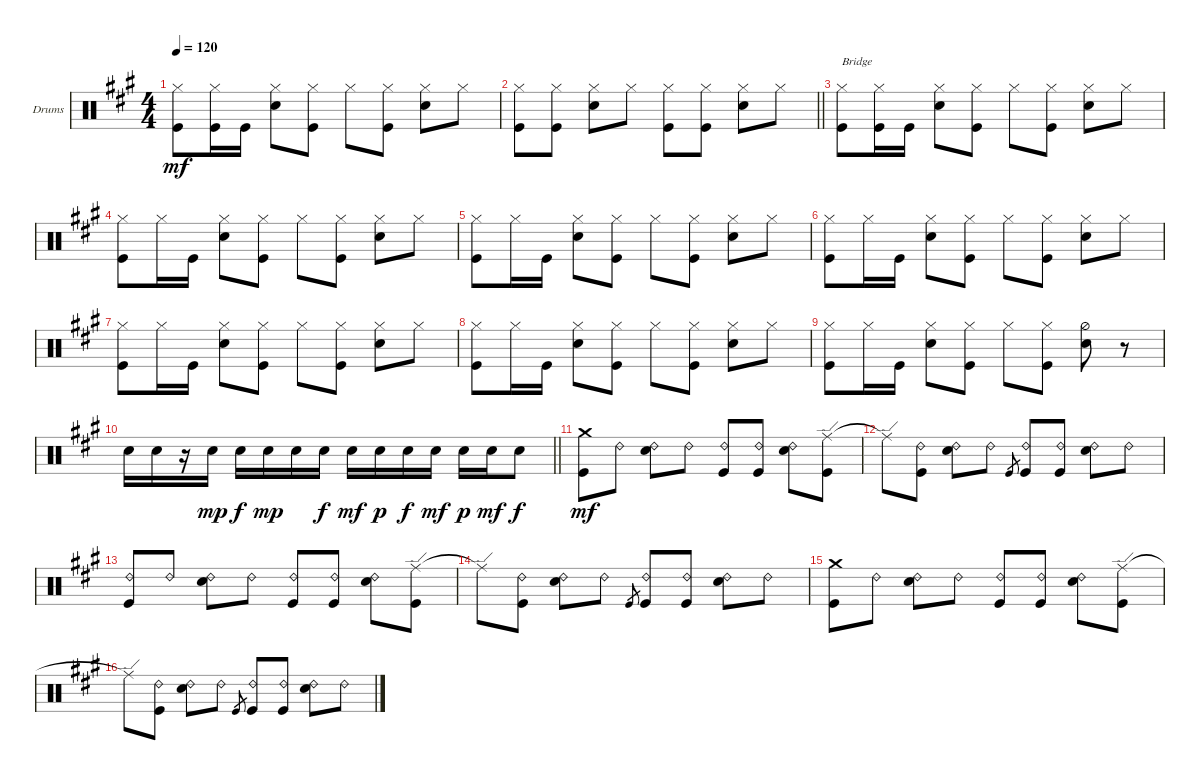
\bracketExtendMode groupsimilarinstruments
\firstSystemTrackNameOrientation horizontal
\otherSystemsTrackNameOrientation horizontal
\track ("Drumkit" "Drums") {instrument percussion}
\staff {score}
\articulation defaults
\ts (4 4)
\tempo 120
\clef neutral
\ks a
("Kick (hit)" "Hi-Hat (closed)").8{dy mf} ("Kick (hit)" "Hi-Hat (closed)").16 "Kick (hit)".16 ("Snare (hit) 2" "Hi-Hat (closed)").8 ("Kick (hit)" "Hi-Hat (closed)").8 "Hi-Hat (closed)".8 ("Hi-Hat (closed)" "Kick (hit)").8 ("Hi-Hat (closed)" "Snare (hit) 2").8 "Hi-Hat (closed)".8 |
\barLineRight lightlight
("Hi-Hat (closed)" "Kick (hit)").8 ("Hi-Hat (closed)" "Kick (hit)").8 ("Hi-Hat (closed)" "Snare (hit) 2").8 "Hi-Hat (closed)".8 ("Hi-Hat (closed)" "Kick (hit)").8 ("Hi-Hat (closed)" "Kick (hit)").8 ("Hi-Hat (closed)" "Snare (hit) 2").8 "Hi-Hat (closed)".8 |
("Kick (hit)" "Hi-Hat (closed)").8{txt "Bridge"} ("Hi-Hat (closed)" "Kick (hit)").16 "Kick (hit)".16 ("Snare (hit) 2" "Hi-Hat (closed)").8 ("Kick (hit)" "Hi-Hat (closed)").8 "Hi-Hat (closed)".8 ("Hi-Hat (closed)" "Kick (hit)").8 ("Hi-Hat (closed)" "Snare (hit) 2").8 "Hi-Hat (closed)".8 |
("Kick (hit)" "Hi-Hat (closed)").8 "Hi-Hat (closed)".16 "Kick (hit)".16 ("Snare (hit) 2" "Hi-Hat (closed)").8 ("Kick (hit)" "Hi-Hat (closed)").8 "Hi-Hat (closed)".8 ("Hi-Hat (closed)" "Kick (hit)").8 ("Hi-Hat (closed)" "Snare (hit) 2").8 "Hi-Hat (closed)".8 |
("Kick (hit)" "Hi-Hat (closed)").8 "Hi-Hat (closed)".16 "Kick (hit)".16 ("Snare (hit) 2" "Hi-Hat (closed)").8 ("Kick (hit)" "Hi-Hat (closed)").8 "Hi-Hat (closed)".8 ("Hi-Hat (closed)" "Kick (hit)").8 ("Hi-Hat (closed)" "Snare (hit) 2").8 "Hi-Hat (closed)".8 |
("Kick (hit)" "Hi-Hat (closed)").8 "Hi-Hat (closed)".16 "Kick (hit)".16 ("Snare (hit) 2" "Hi-Hat (closed)").8 ("Kick (hit)" "Hi-Hat (closed)").8 "Hi-Hat (closed)".8 ("Hi-Hat (closed)" "Kick (hit)").8 ("Hi-Hat (closed)" "Snare (hit) 2").8 "Hi-Hat (closed)".8 |
("Kick (hit)" "Hi-Hat (closed)").8 "Hi-Hat (closed)".16 "Kick (hit)".16 ("Snare (hit) 2" "Hi-Hat (closed)").8 ("Kick (hit)" "Hi-Hat (closed)").8 "Hi-Hat (closed)".8 ("Hi-Hat (closed)" "Kick (hit)").8 ("Hi-Hat (closed)" "Snare (hit) 2").8 "Hi-Hat (closed)".8 |
("Kick (hit)" "Hi-Hat (closed)").8 "Hi-Hat (closed)".16 "Kick (hit)".16 ("Snare (hit) 2" "Hi-Hat (closed)").8 ("Kick (hit)" "Hi-Hat (closed)").8 "Hi-Hat (closed)".8 ("Hi-Hat (closed)" "Kick (hit)").8 ("Hi-Hat (closed)" "Snare (hit) 2").8 "Hi-Hat (closed)".8 |
("Kick (hit)" "Hi-Hat (closed)").8 "Hi-Hat (closed)".16 "Kick (hit)".16 ("Snare (hit) 2" "Hi-Hat (closed)").8 ("Kick (hit)" "Hi-Hat (closed)").8 "Hi-Hat (closed)".8 ("Hi-Hat (closed)" "Kick (hit)").8 ("Hi-Hat (half)" "Snare (hit) 2").8 r.8 |
\barLineRight lightlight "Snare (hit) 2".16 "Snare (hit) 2".16
r.16 "Snare (hit) 2".16{dy mp} "Snare (hit) 2".16{dy f} "Snare (hit) 2".16{dy mp} "Snare (hit) 2".16 "Snare (hit) 2".16{dy f} "Snare (hit) 2".16{dy mf} "Snare (hit) 2".16{dy p} "Snare (hit) 2".16{dy f} "Snare (hit) 2".16{dy mf} "Snare (hit) 2".16{dy p} "Snare (hit) 2".16{dy mf} "Snare (hit) 2".8{dy f} |
("Kick (hit)" "Crash medium (hit)").8{dy mf} "Ride (bell) 2".8 ("Ride (bell) 2" "Snare (hit) 2").8 "Ride (bell) 2".8 ("Ride (bell) 2" "Kick (hit)").8 ("Ride (bell) 2" "Kick (hit)").8 ("Ride (bell) 2" "Snare (hit) 2").8 ("Ride (edge)" "Kick (hit)").8 |
"Ride (edge)"{t}.8 ("Kick (hit)" "Ride (bell) 2").8 ("Snare (hit) 2" "Ride (bell) 2").8 "Ride (bell) 2".8 "Kick (hit)".8{gr} ("Kick (hit)" "Ride (bell) 2").8 ("Kick (hit)" "Ride (bell) 2").8 ("Snare (hit) 2" "Ride (bell) 2").8 "Ride (bell) 2".8 |
("Kick (hit)" "Ride (bell) 2").8 "Ride (bell) 2".8 ("Ride (bell) 2" "Snare (hit) 2").8 "Ride (bell) 2".8 ("Ride (bell) 2" "Kick (hit)").8 ("Ride (bell) 2" "Kick (hit)").8 ("Ride (bell) 2" "Snare (hit) 2").8 ("Ride (edge)" "Kick (hit)").8 |
"Ride (edge)"{t}.8 ("Kick (hit)" "Ride (bell) 2").8 ("Snare (hit) 2" "Ride (bell) 2").8 "Ride (bell) 2".8 "Kick (hit)".8{gr} ("Kick (hit)" "Ride (bell) 2").8 ("Kick (hit)" "Ride (bell) 2").8 ("Snare (hit) 2" "Ride (bell) 2").8 "Ride (bell) 2".8 |
("Kick (hit)" "Crash medium (hit)").8 "Ride (bell) 2".8 ("Ride (bell) 2" "Snare (hit) 2").8 "Ride (bell) 2".8 ("Ride (bell) 2" "Kick (hit)").8 ("Ride (bell) 2" "Kick (hit)").8 ("Ride (bell) 2" "Snare (hit) 2").8 ("Ride (edge)" "Kick (hit)").8 |
"Ride (edge)"{t}.8 ("Kick (hit)" "Ride (bell) 2").8 ("Snare (hit) 2" "Ride (bell) 2").8 "Ride (bell) 2".8 "Kick (hit)".8{gr} ("Kick (hit)" "Ride (bell) 2").8 ("Kick (hit)" "Ride (bell) 2").8 ("Snare (hit) 2" "Ride (bell) 2").8 "Ride (bell) 2".8
